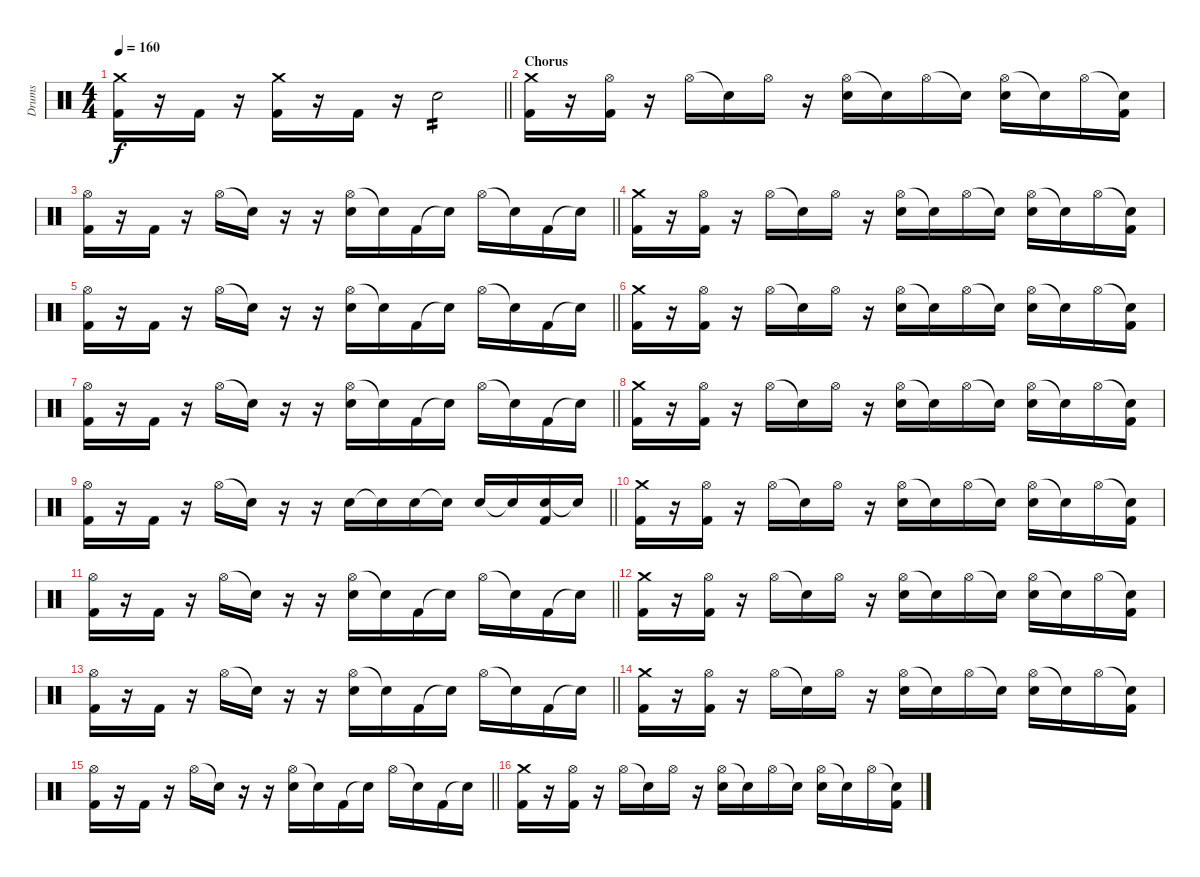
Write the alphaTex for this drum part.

\track ("Drums" "Drums") {instrument percussion}
\staff {score}
\articulation defaults
\ts (4 4)
\tempo 160
\clef neutral
\barLineRight lightlight
\ks c
("Crash medium (hit)" "Kick (hit) 2").16{dy f} r.16 "Kick (hit) 2".16 r.16 ("Crash medium (hit)" "Kick (hit) 2").16 r.16 "Kick (hit) 2".16 r.16 "Snare (hit) 2".2{tp 2} |
\section ("" "Chorus")
("Crash medium (hit)" "Kick (hit) 2").16 r.16 ("Hi-Hat (open)" "Kick (hit) 2").16 r.16 "Hi-Hat (open)".16 "Snare (hit)"{t}.16 "Hi-Hat (open)".16 r.16 ("Hi-Hat (open)" "Snare (hit) 2").16 "Snare (hit)"{t}.16 "Hi-Hat (open)".16 "Snare (hit)"{t}.16 ("Hi-Hat (open)" "Snare (hit) 2").16 "Snare (hit)"{t}.16 "Hi-Hat (open)".16 ("Snare (hit)"{t} "Kick (hit) 2").16 |
\barLineRight lightlight
("Hi-Hat (open)" "Kick (hit) 2").16 r.16 "Kick (hit) 2".16 r.16 "Hi-Hat (open)".16 "Snare (hit)"{t}.16 r.16 r.16 ("Hi-Hat (open)" "Snare (hit) 2").16 "Snare (hit)"{t}.16 "Kick (hit) 2".16 "Snare (hit)"{t}.16 "Hi-Hat (open)".16 "Snare (hit)"{t}.16 "Kick (hit) 2".16 "Snare (hit)"{t}.16 |
("Crash medium (hit)" "Kick (hit) 2").16 r.16 ("Hi-Hat (open)" "Kick (hit) 2").16 r.16 "Hi-Hat (open)".16 "Snare (hit)"{t}.16 "Hi-Hat (open)".16 r.16 ("Hi-Hat (open)" "Snare (hit) 2").16 "Snare (hit)"{t}.16 "Hi-Hat (open)".16 "Snare (hit)"{t}.16 ("Hi-Hat (open)" "Snare (hit) 2").16 "Snare (hit)"{t}.16 "Hi-Hat (open)".16 ("Snare (hit)"{t} "Kick (hit) 2").16 |
\barLineRight lightlight
("Hi-Hat (open)" "Kick (hit) 2").16 r.16 "Kick (hit) 2".16 r.16 "Hi-Hat (open)".16 "Snare (hit)"{t}.16 r.16 r.16 ("Hi-Hat (open)" "Snare (hit) 2").16 "Snare (hit)"{t}.16 "Kick (hit) 2".16 "Snare (hit)"{t}.16 "Hi-Hat (open)".16 "Snare (hit)"{t}.16 "Kick (hit) 2".16 "Snare (hit)"{t}.16 |
("Crash medium (hit)" "Kick (hit) 2").16 r.16 ("Hi-Hat (open)" "Kick (hit) 2").16 r.16 "Hi-Hat (open)".16 "Snare (hit)"{t}.16 "Hi-Hat (open)".16 r.16 ("Hi-Hat (open)" "Snare (hit) 2").16 "Snare (hit)"{t}.16 "Hi-Hat (open)".16 "Snare (hit)"{t}.16 ("Hi-Hat (open)" "Snare (hit) 2").16 "Snare (hit)"{t}.16 "Hi-Hat (open)".16 ("Snare (hit)"{t} "Kick (hit) 2").16 |
\barLineRight lightlight
("Hi-Hat (open)" "Kick (hit) 2").16 r.16 "Kick (hit) 2".16 r.16 "Hi-Hat (open)".16 "Snare (hit)"{t}.16 r.16 r.16 ("Hi-Hat (open)" "Snare (hit) 2").16 "Snare (hit)"{t}.16 "Kick (hit) 2".16 "Snare (hit)"{t}.16 "Hi-Hat (open)".16 "Snare (hit)"{t}.16 "Kick (hit) 2".16 "Snare (hit)"{t}.16 |
("Crash medium (hit)" "Kick (hit) 2").16 r.16 ("Hi-Hat (open)" "Kick (hit) 2").16 r.16 "Hi-Hat (open)".16 "Snare (hit)"{t}.16 "Hi-Hat (open)".16 r.16 ("Hi-Hat (open)" "Snare (hit) 2").16 "Snare (hit)"{t}.16 "Hi-Hat (open)".16 "Snare (hit)"{t}.16 ("Hi-Hat (open)" "Snare (hit) 2").16 "Snare (hit)"{t}.16 "Hi-Hat (open)".16 ("Snare (hit)"{t} "Kick (hit) 2").16 |
\barLineRight lightlight
("Hi-Hat (open)" "Kick (hit) 2").16 r.16 "Kick (hit) 2".16 r.16 "Hi-Hat (open)".16 "Snare (hit)"{t}.16 r.16 r.16 "Snare (hit) 2".16 "Snare (hit)"{t}.16 "Snare (hit) 2".16 "Snare (hit)"{t}.16 "Snare (hit) 2".16 "Snare (hit)"{t}.16 ("Snare (hit) 2" "Kick (hit) 2").16 "Snare (hit)"{t}.16 |
("Crash medium (hit)" "Kick (hit) 2").16 r.16 ("Hi-Hat (open)" "Kick (hit) 2").16 r.16 "Hi-Hat (open)".16 "Snare (hit)"{t}.16 "Hi-Hat (open)".16 r.16 ("Hi-Hat (open)" "Snare (hit) 2").16 "Snare (hit)"{t}.16 "Hi-Hat (open)".16 "Snare (hit)"{t}.16 ("Hi-Hat (open)" "Snare (hit) 2").16 "Snare (hit)"{t}.16 "Hi-Hat (open)".16 ("Snare (hit)"{t} "Kick (hit) 2").16 |
\barLineRight lightlight
("Hi-Hat (open)" "Kick (hit) 2").16 r.16 "Kick (hit) 2".16 r.16 "Hi-Hat (open)".16 "Snare (hit)"{t}.16 r.16 r.16 ("Hi-Hat (open)" "Snare (hit) 2").16 "Snare (hit)"{t}.16 "Kick (hit) 2".16 "Snare (hit)"{t}.16 "Hi-Hat (open)".16 "Snare (hit)"{t}.16 "Kick (hit) 2".16 "Snare (hit)"{t}.16 |
("Crash medium (hit)" "Kick (hit) 2").16 r.16 ("Hi-Hat (open)" "Kick (hit) 2").16 r.16 "Hi-Hat (open)".16 "Snare (hit)"{t}.16 "Hi-Hat (open)".16 r.16 ("Hi-Hat (open)" "Snare (hit) 2").16 "Snare (hit)"{t}.16 "Hi-Hat (open)".16 "Snare (hit)"{t}.16 ("Hi-Hat (open)" "Snare (hit) 2").16 "Snare (hit)"{t}.16 "Hi-Hat (open)".16 ("Snare (hit)"{t} "Kick (hit) 2").16 |
\barLineRight lightlight
("Hi-Hat (open)" "Kick (hit) 2").16 r.16 "Kick (hit) 2".16 r.16 "Hi-Hat (open)".16 "Snare (hit)"{t}.16 r.16 r.16 ("Hi-Hat (open)" "Snare (hit) 2").16 "Snare (hit)"{t}.16 "Kick (hit) 2".16 "Snare (hit)"{t}.16 "Hi-Hat (open)".16 "Snare (hit)"{t}.16 "Kick (hit) 2".16 "Snare (hit)"{t}.16 |
("Crash medium (hit)" "Kick (hit) 2").16 r.16 ("Hi-Hat (open)" "Kick (hit) 2").16 r.16 "Hi-Hat (open)".16 "Snare (hit)"{t}.16 "Hi-Hat (open)".16 r.16 ("Hi-Hat (open)" "Snare (hit) 2").16 "Snare (hit)"{t}.16 "Hi-Hat (open)".16 "Snare (hit)"{t}.16 ("Hi-Hat (open)" "Snare (hit) 2").16 "Snare (hit)"{t}.16 "Hi-Hat (open)".16 ("Snare (hit)"{t} "Kick (hit) 2").16 |
\barLineRight lightlight
("Hi-Hat (open)" "Kick (hit) 2").16 r.16 "Kick (hit) 2".16 r.16 "Hi-Hat (open)".16 "Snare (hit)"{t}.16 r.16 r.16 ("Hi-Hat (open)" "Snare (hit) 2").16 "Snare (hit)"{t}.16 "Kick (hit) 2".16 "Snare (hit)"{t}.16 "Hi-Hat (open)".16 "Snare (hit)"{t}.16 "Kick (hit) 2".16 "Snare (hit)"{t}.16 |
("Crash medium (hit)" "Kick (hit) 2").16 r.16 ("Hi-Hat (open)" "Kick (hit) 2").16 r.16 "Hi-Hat (open)".16 "Snare (hit)"{t}.16 "Hi-Hat (open)".16 r.16 ("Hi-Hat (open)" "Snare (hit) 2").16 "Snare (hit)"{t}.16 "Hi-Hat (open)".16 "Snare (hit)"{t}.16 ("Hi-Hat (open)" "Snare (hit) 2").16 "Snare (hit)"{t}.16 "Hi-Hat (open)".16 ("Snare (hit)"{t} "Kick (hit) 2").16
